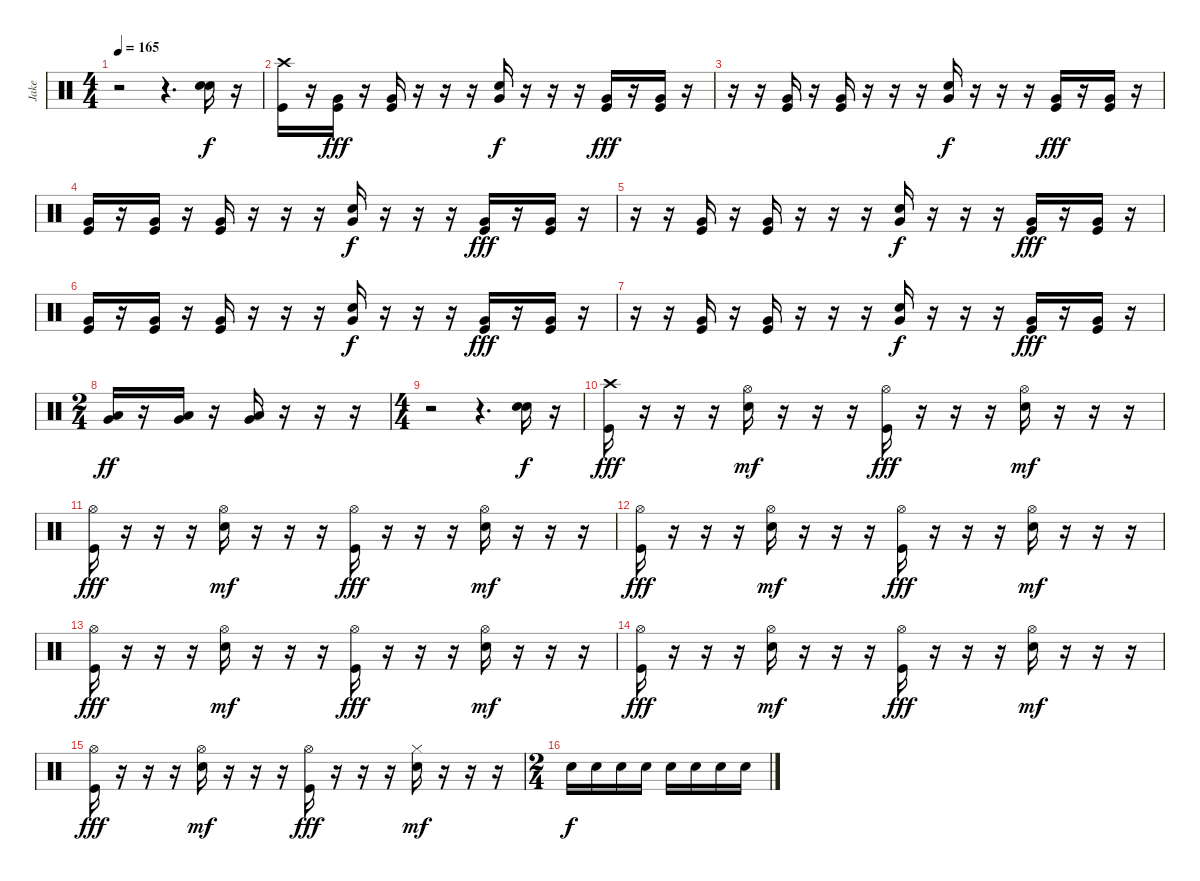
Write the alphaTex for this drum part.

\track ("Jake" "Jake") {instrument percussion}
\staff {score}
\articulation defaults
\ts (4 4)
\tempo 165
\clef neutral
\ks c
r.2{dy fff} r.4{d} ("Electric Snare (hit)" "Electric Snare (hit)").16{dy f} r.16 |
("Crash high (hit)" "Kick (hit)").16 r.16 ("Very Low Tom (hit)" "Kick (hit)").16{dy fff} r.16 ("Very Low Tom (hit)" "Kick (hit)").16 r.16 r.16 r.16 ("Very Low Tom (hit)" "Electric Snare (hit)").16{dy f} r.16 r.16 r.16 ("Very Low Tom (hit)" "Kick (hit)").16{dy fff} r.16 ("Very Low Tom (hit)" "Kick (hit)").16 r.16 |
r.16 r.16 ("Very Low Tom (hit)" "Kick (hit)").16 r.16 ("Very Low Tom (hit)" "Kick (hit)").16 r.16 r.16 r.16 ("Very Low Tom (hit)" "Electric Snare (hit)").16{dy f} r.16 r.16 r.16 ("Very Low Tom (hit)" "Kick (hit)").16{dy fff} r.16 ("Very Low Tom (hit)" "Kick (hit)").16 r.16 |
("Very Low Tom (hit)" "Kick (hit)").16 r.16 ("Very Low Tom (hit)" "Kick (hit)").16 r.16 ("Very Low Tom (hit)" "Kick (hit)").16 r.16 r.16 r.16 ("Very Low Tom (hit)" "Electric Snare (hit)").16{dy f} r.16 r.16 r.16 ("Very Low Tom (hit)" "Kick (hit)").16{dy fff} r.16 ("Very Low Tom (hit)" "Kick (hit)").16 r.16 |
r.16 r.16 ("Very Low Tom (hit)" "Kick (hit)").16 r.16 ("Very Low Tom (hit)" "Kick (hit)").16 r.16 r.16 r.16 ("Very Low Tom (hit)" "Electric Snare (hit)").16{dy f} r.16 r.16 r.16 ("Very Low Tom (hit)" "Kick (hit)").16{dy fff} r.16 ("Very Low Tom (hit)" "Kick (hit)").16 r.16 |
("Very Low Tom (hit)" "Kick (hit)").16 r.16 ("Very Low Tom (hit)" "Kick (hit)").16 r.16 ("Very Low Tom (hit)" "Kick (hit)").16 r.16 r.16 r.16 ("Very Low Tom (hit)" "Electric Snare (hit)").16{dy f} r.16 r.16 r.16 ("Very Low Tom (hit)" "Kick (hit)").16{dy fff} r.16 ("Very Low Tom (hit)" "Kick (hit)").16 r.16 |
r.16 r.16 ("Very Low Tom (hit)" "Kick (hit)").16 r.16 ("Very Low Tom (hit)" "Kick (hit)").16 r.16 r.16 r.16 ("Very Low Tom (hit)" "Electric Snare (hit)").16{dy f} r.16 r.16 r.16 ("Very Low Tom (hit)" "Kick (hit)").16{dy fff} r.16 ("Very Low Tom (hit)" "Kick (hit)").16 r.16 |
\ts (2 4)
("Low Tom (hit)" "Very Low Tom (hit)").16{dy ff} r.16 ("Low Tom (hit)" "Very Low Tom (hit)").16 r.16 ("Low Tom (hit)" "Very Low Tom (hit)").16 r.16 r.16 r.16 |
\ts (4 4)
r.2 r.4{d} ("Electric Snare (hit)" "Electric Snare (hit)").16{dy f} r.16 |
("Crash high (hit)" "Kick (hit)").16{dy fff} r.16 r.16 r.16 ("Hi-Hat (open)" "Electric Snare (hit)").16{dy mf} r.16 r.16 r.16 ("Hi-Hat (open)" "Kick (hit)").16{dy fff} r.16 r.16 r.16 ("Hi-Hat (open)" "Electric Snare (hit)").16{dy mf} r.16 r.16 r.16 |
("Hi-Hat (open)" "Kick (hit)").16{dy fff} r.16 r.16 r.16 ("Hi-Hat (open)" "Electric Snare (hit)").16{dy mf} r.16 r.16 r.16 ("Hi-Hat (open)" "Kick (hit)").16{dy fff} r.16 r.16 r.16 ("Hi-Hat (open)" "Electric Snare (hit)").16{dy mf} r.16 r.16 r.16 |
("Hi-Hat (open)" "Kick (hit)").16{dy fff} r.16 r.16 r.16 ("Hi-Hat (open)" "Electric Snare (hit)").16{dy mf} r.16 r.16 r.16 ("Hi-Hat (open)" "Kick (hit)").16{dy fff} r.16 r.16 r.16 ("Hi-Hat (open)" "Electric Snare (hit)").16{dy mf} r.16 r.16 r.16 |
("Hi-Hat (open)" "Kick (hit)").16{dy fff} r.16 r.16 r.16 ("Hi-Hat (open)" "Electric Snare (hit)").16{dy mf} r.16 r.16 r.16 ("Hi-Hat (open)" "Kick (hit)").16{dy fff} r.16 r.16 r.16 ("Hi-Hat (open)" "Electric Snare (hit)").16{dy mf} r.16 r.16 r.16 |
("Hi-Hat (open)" "Kick (hit)").16{dy fff} r.16 r.16 r.16 ("Hi-Hat (open)" "Electric Snare (hit)").16{dy mf} r.16 r.16 r.16 ("Hi-Hat (open)" "Kick (hit)").16{dy fff} r.16 r.16 r.16 ("Hi-Hat (open)" "Electric Snare (hit)").16{dy mf} r.16 r.16 r.16 |
("Hi-Hat (open)" "Kick (hit)").16{dy fff} r.16 r.16 r.16 ("Hi-Hat (open)" "Electric Snare (hit)").16{dy mf} r.16 r.16 r.16 ("Hi-Hat (open)" "Kick (hit)").16{dy fff} r.16 r.16 r.16 ("Hi-Hat (closed)" "Electric Snare (hit)").16{dy mf} r.16 r.16 r.16 |
\ts (2 4)
"Electric Snare (hit)".16{dy f} "Electric Snare (hit)".16 "Electric Snare (hit)".16 "Electric Snare (hit)".16 "Electric Snare (hit)".16 "Electric Snare (hit)".16 "Electric Snare (hit)".16 "Electric Snare (hit)".16
